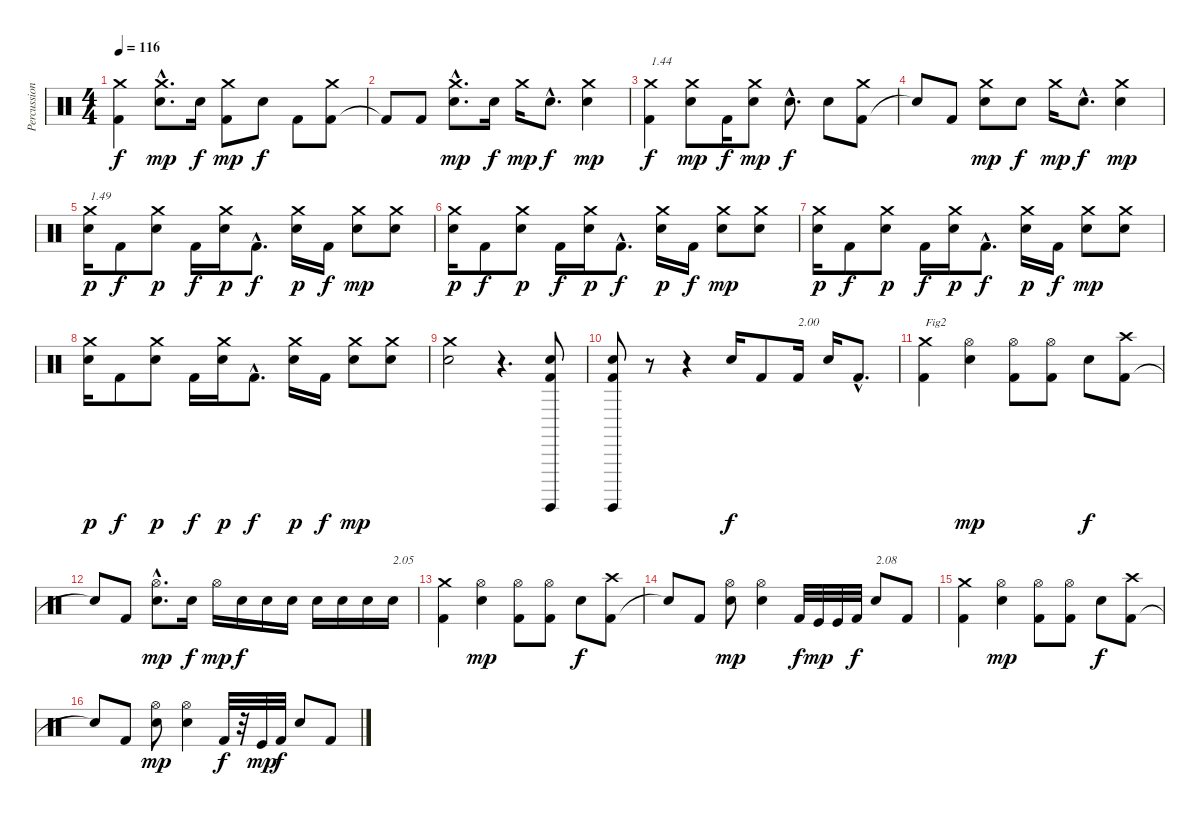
\track ("Percussions" "Percussion") {instrument percussion}
\staff {score}
\articulation defaults
\ts (4 4)
\tempo 116
\clef neutral
\ks c
("Kick (hit) 2" "Crash medium (hit)").4{dy f} ("Electric Snare (hit)"{hac} "Crash medium (hit)"{hac}).8{d dy mp} "Electric Snare (hit)".16{dy f} ("Kick (hit) 2" "Crash medium (hit)").8{dy mp} "Electric Snare (hit)".8{dy f} "Kick (hit) 2".8 ("Kick (hit) 2" "Crash medium (hit)").8 |
"Kick (hit) 2"{t}.8 "Kick (hit) 2".8 ("Electric Snare (hit)"{hac} "Crash medium (hit)"{hac}).8{d dy mp} "Electric Snare (hit)".16{dy f} "Crash medium (hit)".16{dy mp} "Electric Snare (hit)"{hac}.8{d dy f} ("Electric Snare (hit)" "Crash medium (hit)").4{dy mp} |
("Kick (hit) 2" "Crash medium (hit)").4{txt "1.44" dy f} ("Electric Snare (hit)" "Crash medium (hit)").8{dy mp} "Kick (hit) 2".16{dy f} ("Electric Snare (hit)" "Crash medium (hit)").8{dy mp} "Electric Snare (hit)"{hac}.8{d dy f} "Electric Snare (hit)".8 ("Kick (hit) 2" "Crash medium (hit)").8 |
"Snare (hit)"{t}.8 "Kick (hit) 2".8 ("Electric Snare (hit)" "Crash medium (hit)").8{dy mp} "Electric Snare (hit)".8{dy f} "Crash medium (hit)".16{dy mp} "Electric Snare (hit)"{hac}.8{d dy f} ("Electric Snare (hit)" "Crash medium (hit)").4{dy mp} |
("Electric Snare (hit)" "Crash medium (hit)").16{txt "1.49" dy p} "Kick (hit) 2".8{dy f} ("Electric Snare (hit)" "Crash medium (hit)").8{dy p} "Kick (hit) 2".16{dy f} ("Electric Snare (hit)" "Crash medium (hit)").16{dy p} "Kick (hit) 2"{hac}.8{d dy f} ("Electric Snare (hit)" "Crash medium (hit)").16{dy p} "Kick (hit) 2".16{dy f} ("Electric Snare (hit)" "Crash medium (hit)").8{dy mp} ("Electric Snare (hit)" "Crash medium (hit)").8 |
("Electric Snare (hit)" "Crash medium (hit)").16{dy p} "Kick (hit) 2".8{dy f} ("Electric Snare (hit)" "Crash medium (hit)").8{dy p} "Kick (hit) 2".16{dy f} ("Electric Snare (hit)" "Crash medium (hit)").16{dy p} "Kick (hit) 2"{hac}.8{d dy f} ("Electric Snare (hit)" "Crash medium (hit)").16{dy p} "Kick (hit) 2".16{dy f} ("Electric Snare (hit)" "Crash medium (hit)").8{dy mp} ("Electric Snare (hit)" "Crash medium (hit)").8 |
("Electric Snare (hit)" "Crash medium (hit)").16{dy p} "Kick (hit) 2".8{dy f} ("Electric Snare (hit)" "Crash medium (hit)").8{dy p} "Kick (hit) 2".16{dy f} ("Electric Snare (hit)" "Crash medium (hit)").16{dy p} "Kick (hit) 2"{hac}.8{d dy f} ("Electric Snare (hit)" "Crash medium (hit)").16{dy p} "Kick (hit) 2".16{dy f} ("Electric Snare (hit)" "Crash medium (hit)").8{dy mp} ("Electric Snare (hit)" "Crash medium (hit)").8 |
("Electric Snare (hit)" "Crash medium (hit)").16{dy p} "Kick (hit) 2".8{dy f} ("Electric Snare (hit)" "Crash medium (hit)").8{dy p} "Kick (hit) 2".16{dy f} ("Electric Snare (hit)" "Crash medium (hit)").16{dy p} "Kick (hit) 2"{hac}.8{d dy f} ("Electric Snare (hit)" "Crash medium (hit)").16{dy p} "Kick (hit) 2".16{dy f} ("Electric Snare (hit)" "Crash medium (hit)").8{dy mp} ("Electric Snare (hit)" "Crash medium (hit)").8 |
("Electric Snare (hit)" "Crash medium (hit)").2 r.4{d} ("Kick (hit) 2" "Electric Snare (hit)" "Surdo (hit)").8 |
("Kick (hit) 2" "Electric Snare (hit)" "Surdo (hit)").8 r.8 r.4 "Electric Snare (hit)".16{dy f} "Kick (hit) 2".8 "Kick (hit) 2".16{txt "2.00"} "Electric Snare (hit)".16 "Kick (hit) 2"{hac}.8{d} |
("Kick (hit) 2" "Crash medium (hit)").4{txt "Fig2"} ("Electric Snare (hit)" "Hi-Hat (open)").4{dy mp} ("Kick (hit) 2" "Hi-Hat (open)").8 ("Kick (hit) 2" "Hi-Hat (open)").8 "Electric Snare (hit)".8{dy f} ("Kick (hit) 2" "Crash high (hit)").8 |
"Snare (hit)"{t}.8 "Kick (hit) 2".8 ("Electric Snare (hit)"{hac} "Hi-Hat (open)"{hac}).8{d dy mp} "Electric Snare (hit)".16{dy f} "Hi-Hat (open)".16{dy mp} "Electric Snare (hit)".16{dy f} "Electric Snare (hit)".16 "Electric Snare (hit)".16 "Electric Snare (hit)".16 "Electric Snare (hit)".16 "Electric Snare (hit)".16 "Electric Snare (hit)".16{txt "2.05"} |
("Kick (hit) 2" "Crash medium (hit)").4 ("Electric Snare (hit)" "Hi-Hat (open)").4{dy mp} ("Kick (hit) 2" "Hi-Hat (open)").8 ("Kick (hit) 2" "Hi-Hat (open)").8 "Electric Snare (hit)".8{dy f} ("Kick (hit) 2" "Crash high (hit)").8 |
"Snare (hit)"{t}.8 "Kick (hit) 2".8 ("Electric Snare (hit)" "Hi-Hat (open)").8{dy mp} ("Electric Snare (hit)" "Hi-Hat (open)").4 "Kick (hit) 2".32{dy f} "Kick (hit)".32{dy mp} "Kick (hit)".32 "Kick (hit) 2".32{dy f} "Electric Snare (hit)".8{txt "2.08"} "Kick (hit) 2".8 |
("Kick (hit) 2" "Crash medium (hit)").4 ("Electric Snare (hit)" "Hi-Hat (open)").4{dy mp} ("Kick (hit) 2" "Hi-Hat (open)").8 ("Kick (hit) 2" "Hi-Hat (open)").8 "Electric Snare (hit)".8{dy f} ("Kick (hit) 2" "Crash high (hit)").8 |
"Snare (hit)"{t}.8 "Kick (hit) 2".8 ("Electric Snare (hit)" "Hi-Hat (open)").8{dy mp} ("Electric Snare (hit)" "Hi-Hat (open)").4 "Kick (hit) 2".32{dy f} r.32 "Kick (hit)".32{dy mp} "Kick (hit) 2".32{dy f} "Electric Snare (hit)".8 "Kick (hit) 2".8
